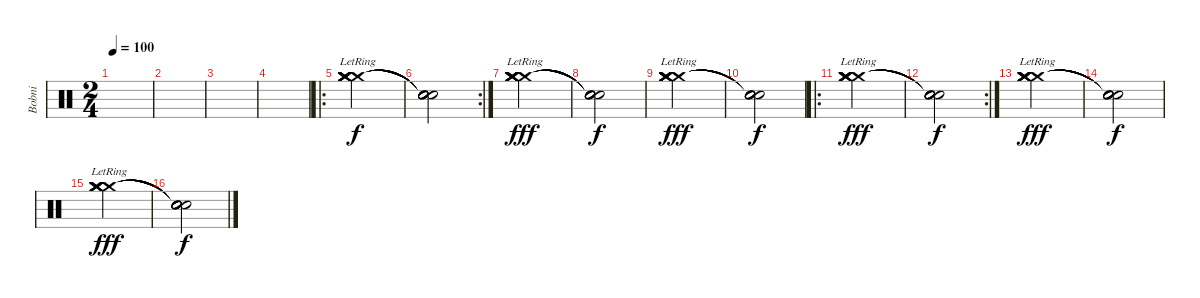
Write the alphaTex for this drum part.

\track ("Bobni" "Bobni") {instrument percussion}
\staff {score}
\articulation defaults
\ts (2 4)
\tempo 100
\clef neutral
\ks c
|
|
|
|
\ro
("Crash medium (hit)"{lr} "Crash medium (hit)"{lr} "Crash medium (hit)"{lr} "Crash medium (hit)"{lr} "Crash medium (hit)"{lr} "Crash medium (hit)"{lr}).2 |
\rc 2
("Snare (hit)"{t} "Snare (hit)"{t} "Snare (hit)"{t} "Snare (hit)"{t} "Snare (hit)"{t} "Snare (hit)"{t}).2{dy f} |
("Crash medium (hit)"{lr} "Crash medium (hit)"{lr} "Crash medium (hit)"{lr} "Crash medium (hit)"{lr} "Crash medium (hit)"{lr} "Crash medium (hit)"{lr}).2{dy fff} |
("Snare (hit)"{t} "Snare (hit)"{t} "Snare (hit)"{t} "Snare (hit)"{t} "Snare (hit)"{t} "Snare (hit)"{t}).2{dy f} |
("Crash medium (hit)"{lr} "Crash medium (hit)"{lr} "Crash medium (hit)"{lr} "Crash medium (hit)"{lr} "Crash medium (hit)"{lr} "Crash medium (hit)"{lr}).2{dy fff} |
("Snare (hit)"{t} "Snare (hit)"{t} "Snare (hit)"{t} "Snare (hit)"{t} "Snare (hit)"{t} "Snare (hit)"{t}).2{dy f} |
\ro
("Crash medium (hit)"{lr} "Crash medium (hit)"{lr} "Crash medium (hit)"{lr} "Crash medium (hit)"{lr} "Crash medium (hit)"{lr} "Crash medium (hit)"{lr}).2{dy fff} |
\rc 2
("Snare (hit)"{t} "Snare (hit)"{t} "Snare (hit)"{t} "Snare (hit)"{t} "Snare (hit)"{t} "Snare (hit)"{t}).2{dy f} |
("Crash medium (hit)"{lr} "Crash medium (hit)"{lr} "Crash medium (hit)"{lr} "Crash medium (hit)"{lr} "Crash medium (hit)"{lr} "Crash medium (hit)"{lr}).2{dy fff} |
("Snare (hit)"{t} "Snare (hit)"{t} "Snare (hit)"{t} "Snare (hit)"{t} "Snare (hit)"{t} "Snare (hit)"{t}).2{dy f} |
("Crash medium (hit)"{lr} "Crash medium (hit)"{lr} "Crash medium (hit)"{lr} "Crash medium (hit)"{lr} "Crash medium (hit)"{lr} "Crash medium (hit)"{lr}).2{dy fff} |
("Snare (hit)"{t} "Snare (hit)"{t} "Snare (hit)"{t} "Snare (hit)"{t} "Snare (hit)"{t} "Snare (hit)"{t}).2{dy f}
